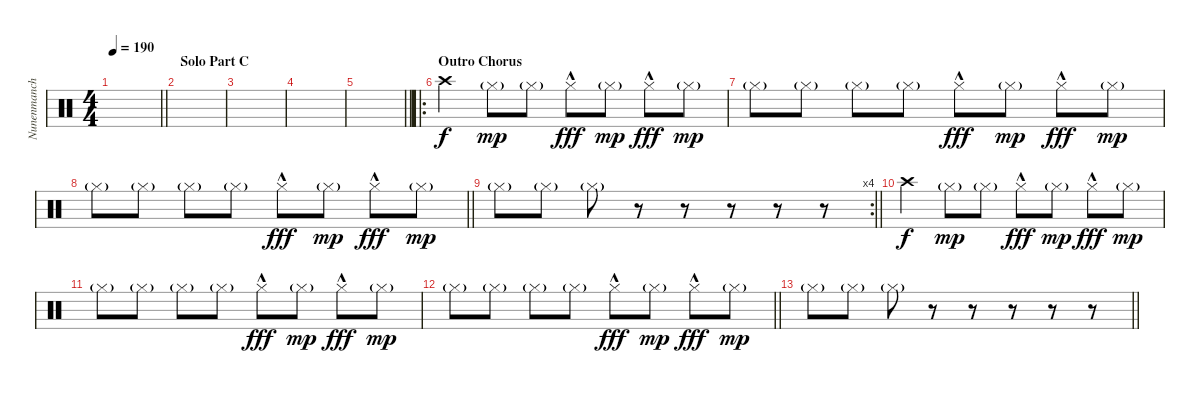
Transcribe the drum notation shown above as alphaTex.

\track ("Nunenmancher" "Nunenmanch") {instrument percussion}
\staff {score}
\articulation defaults
\ts (4 4)
\tempo 190
\clef neutral
\barLineRight lightlight
\ks c
|
\section ("" "Solo Part C")
|
|
|
\barLineRight lightlight
|
\ro
\section ("" "Outro Chorus")
"Crash high (hit)".4{dy f} "Hi-Hat (closed)"{g}.8{dy mp} "Hi-Hat (closed)"{g}.8 "Hi-Hat (closed)"{hac}.8{dy fff} "Hi-Hat (closed)"{g}.8{dy mp} "Hi-Hat (closed)"{hac}.8{dy fff} "Hi-Hat (closed)"{g}.8{dy mp} |
"Hi-Hat (closed)"{g}.8 "Hi-Hat (closed)"{g}.8 "Hi-Hat (closed)"{g}.8 "Hi-Hat (closed)"{g}.8 "Hi-Hat (closed)"{hac}.8{dy fff} "Hi-Hat (closed)"{g}.8{dy mp} "Hi-Hat (closed)"{hac}.8{dy fff} "Hi-Hat (closed)"{g}.8{dy mp} |
\barLineRight lightlight "Hi-Hat (closed)"{g}.8 "Hi-Hat (closed)"{g}.8 "Hi-Hat (closed)"{g}.8 "Hi-Hat (closed)"{g}.8 "Hi-Hat (closed)"{hac}.8{dy fff} "Hi-Hat (closed)"{g}.8{dy mp} "Hi-Hat (closed)"{hac}.8{dy fff} "Hi-Hat (closed)"{g}.8{dy mp}
|
\rc 4
\barLineRight lightlight "Hi-Hat (closed)"{g}.8 "Hi-Hat (closed)"{g}.8 "Hi-Hat (closed)"{g}.8
r.8 r.8 r.8 r.8 r.8 |
"Crash high (hit)".4{dy f} "Hi-Hat (closed)"{g}.8{dy mp} "Hi-Hat (closed)"{g}.8 "Hi-Hat (closed)"{hac}.8{dy fff} "Hi-Hat (closed)"{g}.8{dy mp} "Hi-Hat (closed)"{hac}.8{dy fff} "Hi-Hat (closed)"{g}.8{dy mp} |
"Hi-Hat (closed)"{g}.8 "Hi-Hat (closed)"{g}.8 "Hi-Hat (closed)"{g}.8 "Hi-Hat (closed)"{g}.8 "Hi-Hat (closed)"{hac}.8{dy fff} "Hi-Hat (closed)"{g}.8{dy mp} "Hi-Hat (closed)"{hac}.8{dy fff} "Hi-Hat (closed)"{g}.8{dy mp} |
\barLineRight lightlight "Hi-Hat (closed)"{g}.8 "Hi-Hat (closed)"{g}.8 "Hi-Hat (closed)"{g}.8 "Hi-Hat (closed)"{g}.8 "Hi-Hat (closed)"{hac}.8{dy fff} "Hi-Hat (closed)"{g}.8{dy mp} "Hi-Hat (closed)"{hac}.8{dy fff} "Hi-Hat (closed)"{g}.8{dy mp}
|
\barLineRight lightlight "Hi-Hat (closed)"{g}.8 "Hi-Hat (closed)"{g}.8 "Hi-Hat (closed)"{g}.8
r.8 r.8 r.8 r.8 r.8
